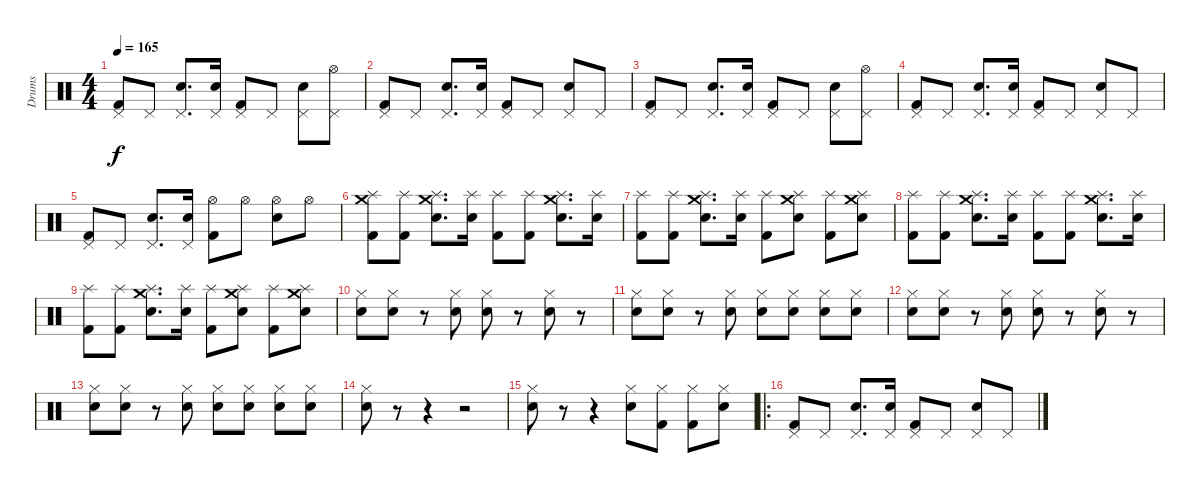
\track ("Drums" "Drums") {instrument percussion}
\staff {score}
\articulation defaults
\ts (4 4)
\tempo 165
\clef neutral
\ks c
("Pedal Hi-Hat (hit)" "Kick (hit) 2").8{dy f} "Pedal Hi-Hat (hit)".8 ("Pedal Hi-Hat (hit)" "Snare (hit) 2").8{d} ("Pedal Hi-Hat (hit)" "Electric Snare (hit)").16 ("Pedal Hi-Hat (hit)" "Kick (hit) 2").8 "Pedal Hi-Hat (hit)".8 ("Pedal Hi-Hat (hit)" "Snare (hit) 2").8 ("Pedal Hi-Hat (hit)" "Hi-Hat (open)").8 |
("Pedal Hi-Hat (hit)" "Kick (hit) 2").8 "Pedal Hi-Hat (hit)".8 ("Pedal Hi-Hat (hit)" "Snare (hit) 2").8{d} ("Pedal Hi-Hat (hit)" "Electric Snare (hit)").16 ("Pedal Hi-Hat (hit)" "Kick (hit) 2").8 "Pedal Hi-Hat (hit)".8 ("Pedal Hi-Hat (hit)" "Snare (hit) 2").8 "Pedal Hi-Hat (hit)".8 |
("Pedal Hi-Hat (hit)" "Kick (hit) 2").8 "Pedal Hi-Hat (hit)".8 ("Pedal Hi-Hat (hit)" "Snare (hit) 2").8{d} ("Pedal Hi-Hat (hit)" "Electric Snare (hit)").16 ("Pedal Hi-Hat (hit)" "Kick (hit) 2").8 "Pedal Hi-Hat (hit)".8 ("Pedal Hi-Hat (hit)" "Snare (hit) 2").8 ("Pedal Hi-Hat (hit)" "Hi-Hat (open)").8 |
("Pedal Hi-Hat (hit)" "Kick (hit) 2").8 "Pedal Hi-Hat (hit)".8 ("Pedal Hi-Hat (hit)" "Snare (hit) 2").8{d} ("Pedal Hi-Hat (hit)" "Electric Snare (hit)").16 ("Pedal Hi-Hat (hit)" "Kick (hit) 2").8 "Pedal Hi-Hat (hit)".8 ("Pedal Hi-Hat (hit)" "Snare (hit) 2").8 "Pedal Hi-Hat (hit)".8 |
("Pedal Hi-Hat (hit)" "Kick (hit) 2").8 "Pedal Hi-Hat (hit)".8 ("Pedal Hi-Hat (hit)" "Snare (hit) 2").8{d} ("Pedal Hi-Hat (hit)" "Electric Snare (hit)").16 ("Hi-Hat (open)" "Kick (hit) 2").8 "Hi-Hat (open)".8 ("Hi-Hat (open)" "Snare (hit) 2").8 "Hi-Hat (open)".8 |
("Crash medium (hit)" "Splash (hit)" "Kick (hit) 2").8 ("Splash (hit)" "Kick (hit) 2").8 ("Crash medium (hit)" "Splash (hit)" "Snare (hit) 2").8{d} ("Splash (hit)" "Electric Snare (hit)").16 ("Splash (hit)" "Kick (hit) 2").8 ("Splash (hit)" "Kick (hit) 2").8 ("Crash medium (hit)" "Splash (hit)" "Snare (hit) 2").8{d} ("Splash (hit)" "Electric Snare (hit)").16 |
("Splash (hit)" "Kick (hit) 2").8 ("Splash (hit)" "Kick (hit) 2").8 ("Crash medium (hit)" "Splash (hit)" "Snare (hit) 2").8{d} ("Splash (hit)" "Electric Snare (hit)").16 ("Splash (hit)" "Kick (hit) 2").8 ("Crash medium (hit)" "Splash (hit)" "Snare (hit) 2").8 ("Splash (hit)" "Kick (hit) 2").8 ("Crash medium (hit)" "Splash (hit)" "Snare (hit) 2").8 |
("Splash (hit)" "Kick (hit) 2").8 ("Splash (hit)" "Kick (hit) 2").8 ("Crash medium (hit)" "Splash (hit)" "Snare (hit) 2").8{d} ("Splash (hit)" "Electric Snare (hit)").16 ("Splash (hit)" "Kick (hit) 2").8 ("Splash (hit)" "Kick (hit) 2").8 ("Crash medium (hit)" "Splash (hit)" "Snare (hit) 2").8{d} ("Splash (hit)" "Electric Snare (hit)").16 |
("Splash (hit)" "Kick (hit) 2").8 ("Splash (hit)" "Kick (hit) 2").8 ("Crash medium (hit)" "Splash (hit)" "Snare (hit) 2").8{d} ("Splash (hit)" "Electric Snare (hit)").16 ("Splash (hit)" "Kick (hit) 2").8 ("Crash medium (hit)" "Splash (hit)" "Snare (hit) 2").8 ("Splash (hit)" "Kick (hit) 2").8 ("Crash medium (hit)" "Splash (hit)" "Snare (hit) 2").8 |
("Hi-Hat (closed)" "Electric Snare (hit)").8 ("Hi-Hat (closed)" "Electric Snare (hit)").8 r.8 ("Hi-Hat (closed)" "Electric Snare (hit)").8 ("Hi-Hat (closed)" "Electric Snare (hit)").8 r.8 ("Hi-Hat (closed)" "Electric Snare (hit)").8 r.8 |
("Hi-Hat (closed)" "Electric Snare (hit)").8 ("Hi-Hat (closed)" "Electric Snare (hit)").8 r.8 ("Hi-Hat (closed)" "Electric Snare (hit)").8 ("Hi-Hat (closed)" "Electric Snare (hit)").8 ("Hi-Hat (closed)" "Electric Snare (hit)").8 ("Hi-Hat (closed)" "Electric Snare (hit)").8 ("Hi-Hat (closed)" "Electric Snare (hit)").8 |
("Hi-Hat (closed)" "Electric Snare (hit)").8 ("Hi-Hat (closed)" "Electric Snare (hit)").8 r.8 ("Hi-Hat (closed)" "Electric Snare (hit)").8 ("Hi-Hat (closed)" "Electric Snare (hit)").8 r.8 ("Hi-Hat (closed)" "Electric Snare (hit)").8 r.8 |
("Hi-Hat (closed)" "Electric Snare (hit)").8 ("Hi-Hat (closed)" "Electric Snare (hit)").8 r.8 ("Hi-Hat (closed)" "Electric Snare (hit)").8 ("Hi-Hat (closed)" "Electric Snare (hit)").8 ("Hi-Hat (closed)" "Electric Snare (hit)").8 ("Hi-Hat (closed)" "Electric Snare (hit)").8 ("Hi-Hat (closed)" "Electric Snare (hit)").8 |
("Hi-Hat (closed)" "Electric Snare (hit)").8 r.8 r.4 r.2 |
("Hi-Hat (closed)" "Electric Snare (hit)").8 r.8 r.4 ("Hi-Hat (closed)" "Electric Snare (hit)").8 ("Hi-Hat (closed)" "Kick (hit) 2").8 ("Hi-Hat (closed)" "Kick (hit) 2").8 ("Hi-Hat (closed)" "Electric Snare (hit)").8 |
\ro
("Pedal Hi-Hat (hit)" "Kick (hit) 2").8 "Pedal Hi-Hat (hit)".8 ("Pedal Hi-Hat (hit)" "Snare (hit) 2").8{d} ("Pedal Hi-Hat (hit)" "Electric Snare (hit)").16 ("Pedal Hi-Hat (hit)" "Kick (hit) 2").8 "Pedal Hi-Hat (hit)".8 ("Pedal Hi-Hat (hit)" "Snare (hit) 2").8 "Pedal Hi-Hat (hit)".8
